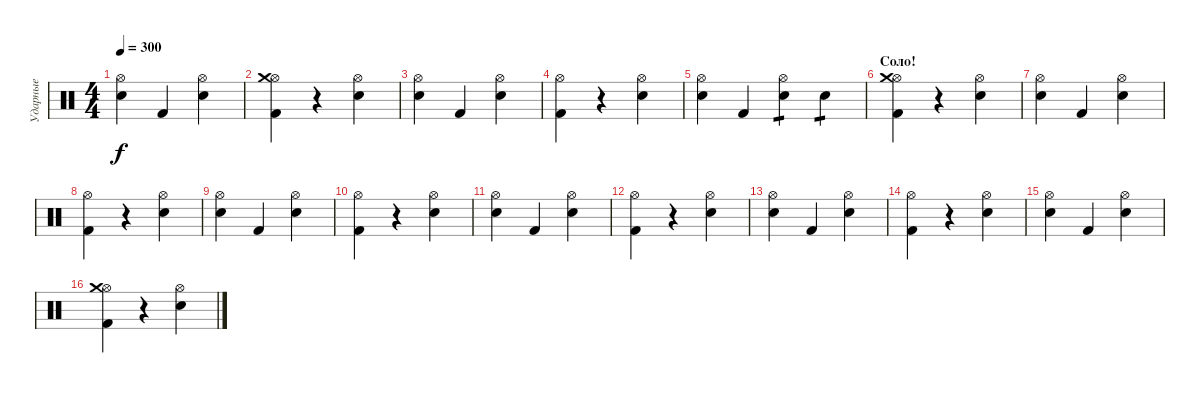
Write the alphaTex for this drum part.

\track ("Ударные" "Ударные") {instrument percussion}
\staff
\articulation defaults
\ts (4 4)
\tempo 300
\clef neutral
\ks c
("Snare (hit)" "Hi-Hat (open)").4{dy f} "Kick (hit) 2".4 ("Electric Snare (hit)" "Hi-Hat (open)").4 |
("Hi-Hat (open)" "Kick (hit) 2" "Crash medium (hit)").4 r.4 ("Electric Snare (hit)" "Hi-Hat (open)").4 |
("Snare (hit)" "Hi-Hat (open)").4 "Kick (hit) 2".4 ("Electric Snare (hit)" "Hi-Hat (open)").4 |
("Hi-Hat (open)" "Kick (hit) 2").4 r.4 ("Electric Snare (hit)" "Hi-Hat (open)").4 |
("Snare (hit)" "Hi-Hat (open)").4 "Kick (hit) 2".4 ("Electric Snare (hit)" "Hi-Hat (open)").4{tp 1} "Electric Snare (hit)".4{tp 1} |
\section ("" "Соло!")
("Hi-Hat (open)" "Kick (hit) 2" "Crash medium (hit)").4 r.4 ("Electric Snare (hit)" "Hi-Hat (open)").4 |
("Snare (hit)" "Hi-Hat (open)").4 "Kick (hit) 2".4 ("Electric Snare (hit)" "Hi-Hat (open)").4 |
("Hi-Hat (open)" "Kick (hit) 2").4 r.4 ("Electric Snare (hit)" "Hi-Hat (open)").4 |
("Snare (hit)" "Hi-Hat (open)").4 "Kick (hit) 2".4 ("Electric Snare (hit)" "Hi-Hat (open)").4 |
("Hi-Hat (open)" "Kick (hit) 2").4 r.4 ("Electric Snare (hit)" "Hi-Hat (open)").4 |
("Snare (hit)" "Hi-Hat (open)").4 "Kick (hit) 2".4 ("Electric Snare (hit)" "Hi-Hat (open)").4 |
("Hi-Hat (open)" "Kick (hit) 2").4 r.4 ("Electric Snare (hit)" "Hi-Hat (open)").4 |
("Snare (hit)" "Hi-Hat (open)").4 "Kick (hit) 2".4 ("Electric Snare (hit)" "Hi-Hat (open)").4 |
("Hi-Hat (open)" "Kick (hit) 2").4 r.4 ("Electric Snare (hit)" "Hi-Hat (open)").4 |
("Snare (hit)" "Hi-Hat (open)").4 "Kick (hit) 2".4 ("Electric Snare (hit)" "Hi-Hat (open)").4 |
("Hi-Hat (open)" "Kick (hit) 2" "Crash medium (hit)").4 r.4 ("Electric Snare (hit)" "Hi-Hat (open)").4
